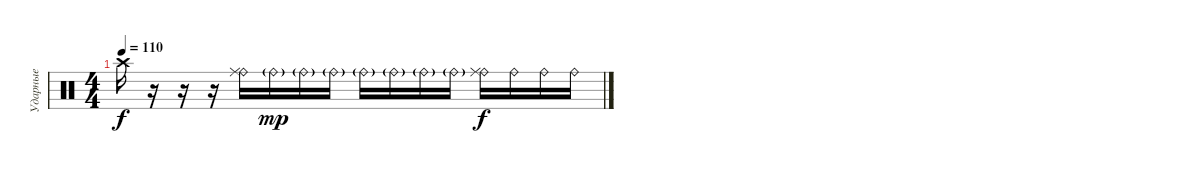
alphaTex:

\track ("Ударные" "Ударные") {instrument percussion}
\staff {score}
\articulation defaults
\ts (4 4)
\tempo 110
\clef neutral
\ks c "Crash high (hit)".16{dy f}
r.16 r.16 r.16 ("Ride (bell)" "Ride (middle)").16 "Ride (bell)"{g}.16{dy mp} "Ride (bell)"{g}.16 "Ride (bell)"{g}.16 "Ride (bell)"{g}.16 "Ride (bell)"{g}.16 "Ride (bell)"{g}.16 "Ride (bell)"{g}.16 ("Ride (bell)" "Ride (middle)").16{dy f} "Ride (bell)".16 "Ride (bell)".16 "Ride (bell)".16
